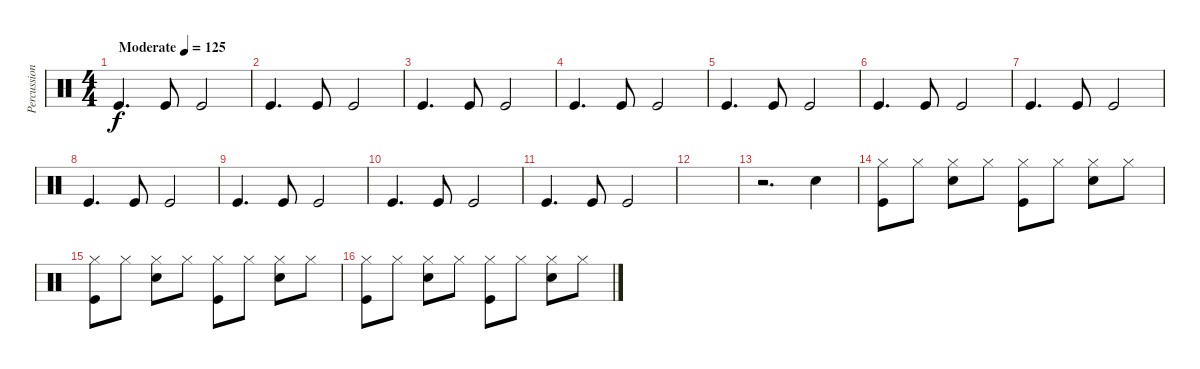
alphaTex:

\track ("Percussion" "Percussion") {instrument percussion}
\staff {score}
\articulation defaults
\ts (4 4)
\tempo (125 "Moderate")
\clef neutral
\ks c "Kick (hit)".4{d dy f} "Kick (hit)".8 "Kick (hit)".2
|
"Kick (hit)".4{d} "Kick (hit)".8 "Kick (hit)".2 |
"Kick (hit)".4{d} "Kick (hit)".8 "Kick (hit)".2 |
"Kick (hit)".4{d} "Kick (hit)".8 "Kick (hit)".2 |
"Kick (hit)".4{d} "Kick (hit)".8 "Kick (hit)".2 |
"Kick (hit)".4{d} "Kick (hit)".8 "Kick (hit)".2 |
"Kick (hit)".4{d} "Kick (hit)".8 "Kick (hit)".2 |
"Kick (hit)".4{d} "Kick (hit)".8 "Kick (hit)".2 |
"Kick (hit)".4{d} "Kick (hit)".8 "Kick (hit)".2 |
"Kick (hit)".4{d} "Kick (hit)".8 "Kick (hit)".2 |
"Kick (hit)".4{d} "Kick (hit)".8 "Kick (hit)".2 |
|
r.2{d} "Snare (hit) 2".4 |
("Hi-Hat (closed)" "Kick (hit)").8 "Hi-Hat (closed)".8 ("Snare (hit) 2" "Hi-Hat (closed)").8 "Hi-Hat (closed)".8 ("Hi-Hat (closed)" "Kick (hit)").8 "Hi-Hat (closed)".8 ("Snare (hit) 2" "Hi-Hat (closed)").8 "Hi-Hat (closed)".8 |
("Hi-Hat (closed)" "Kick (hit)").8 "Hi-Hat (closed)".8 ("Snare (hit) 2" "Hi-Hat (closed)").8 "Hi-Hat (closed)".8 ("Hi-Hat (closed)" "Kick (hit)").8 "Hi-Hat (closed)".8 ("Snare (hit) 2" "Hi-Hat (closed)").8 "Hi-Hat (closed)".8 |
("Hi-Hat (closed)" "Kick (hit)").8 "Hi-Hat (closed)".8 ("Snare (hit) 2" "Hi-Hat (closed)").8 "Hi-Hat (closed)".8 ("Hi-Hat (closed)" "Kick (hit)").8 "Hi-Hat (closed)".8 ("Snare (hit) 2" "Hi-Hat (closed)").8 "Hi-Hat (closed)".8
